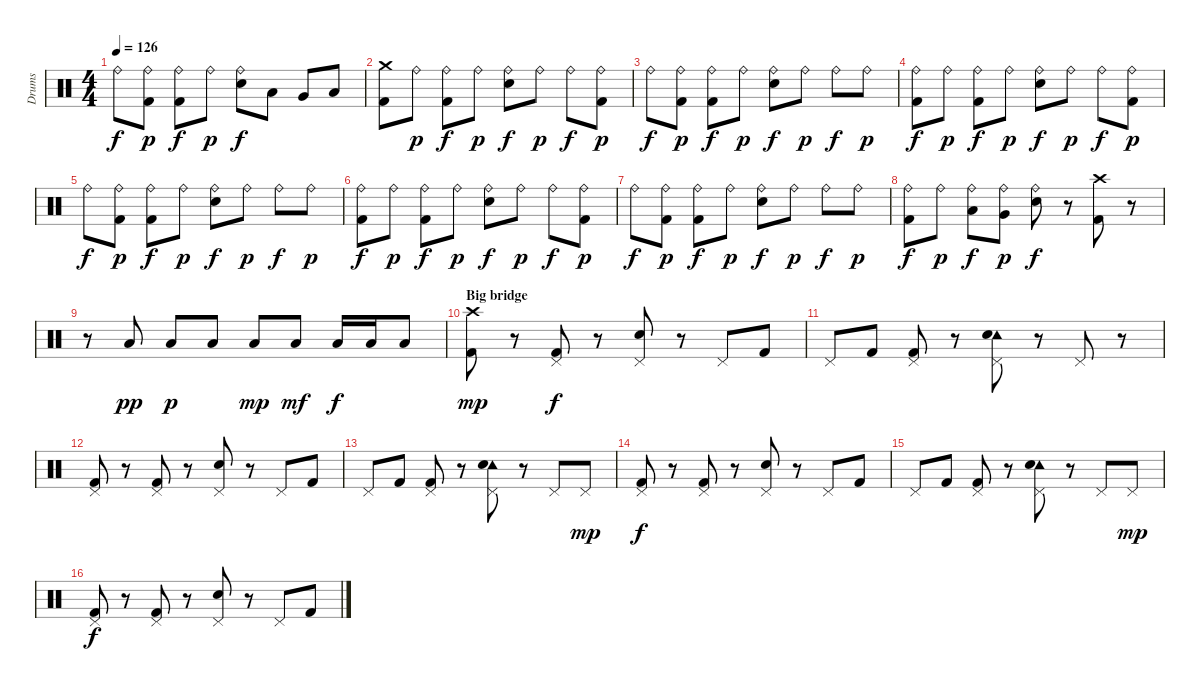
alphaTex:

\track ("Drums" "Drums") {instrument percussion}
\staff {score}
\articulation defaults
\ts (4 4)
\tempo 126
\clef neutral
\ks c "Ride (bell)".8{dy f}
("Ride (bell)" "Kick (hit) 2").8{dy p} ("Ride (bell)" "Kick (hit) 2").8{dy f} "Ride (bell)".8{dy p} ("Ride (bell)" "Electric Snare (hit)").8{dy f} "Low Tom (hit)".8 "Very Low Tom (hit)".8 "Low Floor Tom (hit)".8 |
("Crash medium (hit)" "Kick (hit) 2").8 "Ride (bell)".8{dy p} ("Ride (bell)" "Kick (hit) 2").8{dy f} "Ride (bell)".8{dy p} ("Ride (bell)" "Electric Snare (hit)").8{dy f} "Ride (bell)".8{dy p} "Ride (bell)".8{dy f} ("Ride (bell)" "Kick (hit) 2").8{dy p} |
"Ride (bell)".8{dy f} ("Ride (bell)" "Kick (hit) 2").8{dy p} ("Ride (bell)" "Kick (hit) 2").8{dy f} "Ride (bell)".8{dy p} ("Ride (bell)" "Electric Snare (hit)").8{dy f} "Ride (bell)".8{dy p} "Ride (bell)".8{dy f} "Ride (bell)".8{dy p} |
("Ride (bell)" "Kick (hit) 2").8{dy f} "Ride (bell)".8{dy p} ("Ride (bell)" "Kick (hit) 2").8{dy f} "Ride (bell)".8{dy p} ("Ride (bell)" "Electric Snare (hit)").8{dy f} "Ride (bell)".8{dy p} "Ride (bell)".8{dy f} ("Ride (bell)" "Kick (hit) 2").8{dy p} |
"Ride (bell)".8{dy f} ("Ride (bell)" "Kick (hit) 2").8{dy p} ("Ride (bell)" "Kick (hit) 2").8{dy f} "Ride (bell)".8{dy p} ("Ride (bell)" "Electric Snare (hit)").8{dy f} "Ride (bell)".8{dy p} "Ride (bell)".8{dy f} "Ride (bell)".8{dy p} |
("Ride (bell)" "Kick (hit) 2").8{dy f} "Ride (bell)".8{dy p} ("Ride (bell)" "Kick (hit) 2").8{dy f} "Ride (bell)".8{dy p} ("Ride (bell)" "Electric Snare (hit)").8{dy f} "Ride (bell)".8{dy p} "Ride (bell)".8{dy f} ("Ride (bell)" "Kick (hit) 2").8{dy p} |
"Ride (bell)".8{dy f} ("Ride (bell)" "Kick (hit) 2").8{dy p} ("Ride (bell)" "Kick (hit) 2").8{dy f} "Ride (bell)".8{dy p} ("Ride (bell)" "Electric Snare (hit)").8{dy f} "Ride (bell)".8{dy p} "Ride (bell)".8{dy f} "Ride (bell)".8{dy p} |
("Ride (bell)" "Kick (hit) 2").8{dy f} "Ride (bell)".8{dy p} ("Ride (bell)" "Low Floor Tom (hit)").8{dy f} ("Ride (bell)" "Very Low Tom (hit)").8{dy p} ("Ride (bell)" "Electric Snare (hit)").8{dy f} r.8 ("Crash high (hit)" "Kick (hit) 2").8 r.8 |
r.8 "Low Floor Tom (hit)".8{dy pp} "Low Floor Tom (hit)".8{dy p} "Low Floor Tom (hit)".8 "Low Floor Tom (hit)".8{dy mp} "Low Floor Tom (hit)".8{dy mf} "Low Floor Tom (hit)".16{dy f} "Low Floor Tom (hit)".16 "Low Floor Tom (hit)".8 |
\section ("" "Big bridge")
("Crash high (hit)" "Kick (hit) 2").8{dy mp} r.8 ("Pedal Hi-Hat (hit)" "Kick (hit) 2").8{dy f} r.8 ("Pedal Hi-Hat (hit)" "Electric Snare (hit)").8 r.8 "Pedal Hi-Hat (hit)".8 "Kick (hit) 2".8 |
"Pedal Hi-Hat (hit)".8 "Kick (hit) 2".8 ("Pedal Hi-Hat (hit)" "Kick (hit) 2").8 r.8 ("Pedal Hi-Hat (hit)" "Tambourine (hit)" "Electric Snare (hit)").8 r.8 "Pedal Hi-Hat (hit)".8 r.8 |
("Pedal Hi-Hat (hit)" "Kick (hit) 2").8 r.8 ("Pedal Hi-Hat (hit)" "Kick (hit) 2").8 r.8 ("Pedal Hi-Hat (hit)" "Electric Snare (hit)").8 r.8 "Pedal Hi-Hat (hit)".8 "Kick (hit) 2".8 |
"Pedal Hi-Hat (hit)".8 "Kick (hit) 2".8 ("Pedal Hi-Hat (hit)" "Kick (hit) 2").8 r.8 ("Pedal Hi-Hat (hit)" "Tambourine (hit)" "Electric Snare (hit)").8 r.8 "Pedal Hi-Hat (hit)".8 "Pedal Hi-Hat (hit)".8{dy mp} |
("Pedal Hi-Hat (hit)" "Kick (hit) 2").8{dy f} r.8 ("Pedal Hi-Hat (hit)" "Kick (hit) 2").8 r.8 ("Pedal Hi-Hat (hit)" "Electric Snare (hit)").8 r.8 "Pedal Hi-Hat (hit)".8 "Kick (hit) 2".8 |
"Pedal Hi-Hat (hit)".8 "Kick (hit) 2".8 ("Pedal Hi-Hat (hit)" "Kick (hit) 2").8 r.8 ("Pedal Hi-Hat (hit)" "Tambourine (hit)" "Electric Snare (hit)").8 r.8 "Pedal Hi-Hat (hit)".8 "Pedal Hi-Hat (hit)".8{dy mp} |
("Pedal Hi-Hat (hit)" "Kick (hit) 2").8{dy f} r.8 ("Pedal Hi-Hat (hit)" "Kick (hit) 2").8 r.8 ("Pedal Hi-Hat (hit)" "Electric Snare (hit)").8 r.8 "Pedal Hi-Hat (hit)".8 "Kick (hit) 2".8
